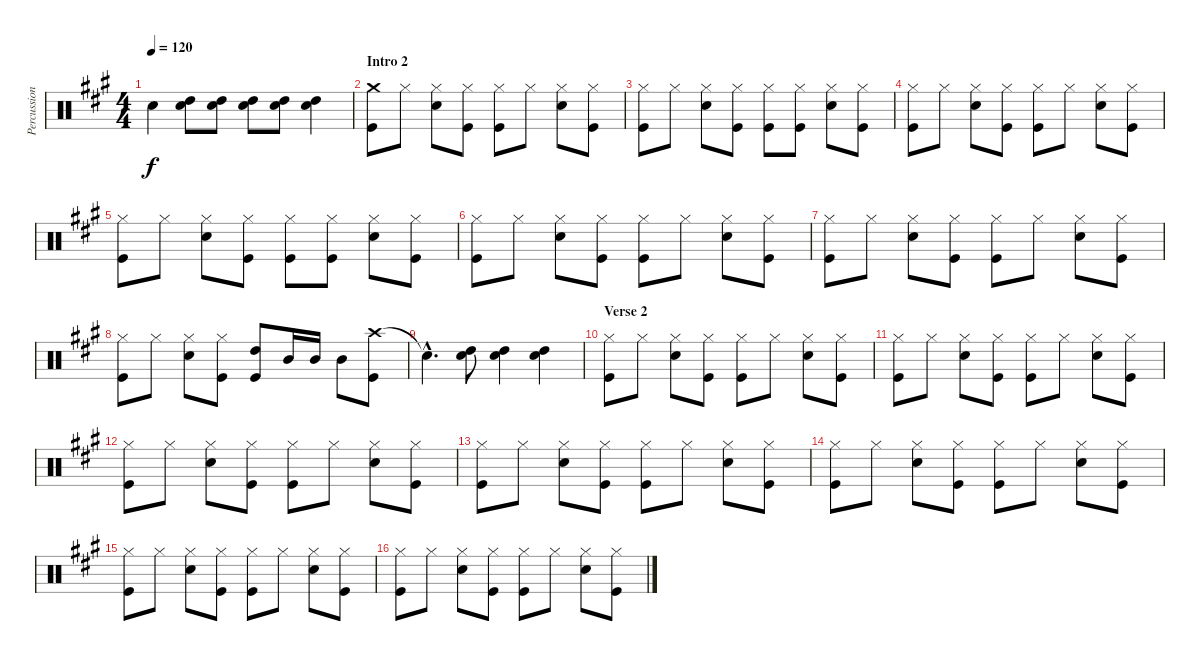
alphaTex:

\track ("Percussion" "Percussion") {instrument percussion}
\staff {score}
\articulation defaults
\ts (4 4)
\tempo 120
\clef neutral
\ks a "Snare (hit)"{t}.4{dy f}
("High Tom (hit)" "Snare (hit) 2").8 ("High Tom (hit)" "Snare (hit) 2").8 ("High Tom (hit)" "Snare (hit) 2").8 ("High Tom (hit)" "Snare (hit) 2").8 ("High Tom (hit)" "Snare (hit) 2").4 |
\section ("" "Intro 2")
("Crash medium (hit)" "Kick (hit)").8 "Hi-Hat (closed)".8 ("Hi-Hat (closed)" "Snare (hit) 2").8 ("Hi-Hat (closed)" "Kick (hit)").8 ("Hi-Hat (closed)" "Kick (hit)").8 "Hi-Hat (closed)".8 ("Hi-Hat (closed)" "Snare (hit) 2").8 ("Hi-Hat (closed)" "Kick (hit)").8 |
("Hi-Hat (closed)" "Kick (hit)").8 "Hi-Hat (closed)".8 ("Hi-Hat (closed)" "Snare (hit) 2").8 ("Hi-Hat (closed)" "Kick (hit)").8 ("Hi-Hat (closed)" "Kick (hit)").8 ("Hi-Hat (closed)" "Kick (hit)").8 ("Hi-Hat (closed)" "Snare (hit) 2").8 ("Hi-Hat (closed)" "Kick (hit)").8 |
("Hi-Hat (closed)" "Kick (hit)").8 "Hi-Hat (closed)".8 ("Hi-Hat (closed)" "Snare (hit) 2").8 ("Hi-Hat (closed)" "Kick (hit)").8 ("Hi-Hat (closed)" "Kick (hit)").8 "Hi-Hat (closed)".8 ("Hi-Hat (closed)" "Snare (hit) 2").8 ("Hi-Hat (closed)" "Kick (hit)").8 |
("Hi-Hat (closed)" "Kick (hit)").8 "Hi-Hat (closed)".8 ("Hi-Hat (closed)" "Snare (hit) 2").8 ("Hi-Hat (closed)" "Kick (hit)").8 ("Hi-Hat (closed)" "Kick (hit)").8 ("Hi-Hat (closed)" "Kick (hit)").8 ("Hi-Hat (closed)" "Snare (hit) 2").8 ("Hi-Hat (closed)" "Kick (hit)").8 |
("Hi-Hat (closed)" "Kick (hit)").8 "Hi-Hat (closed)".8 ("Hi-Hat (closed)" "Snare (hit) 2").8 ("Hi-Hat (closed)" "Kick (hit)").8 ("Hi-Hat (closed)" "Kick (hit)").8 "Hi-Hat (closed)".8 ("Hi-Hat (closed)" "Snare (hit) 2").8 ("Hi-Hat (closed)" "Kick (hit)").8 |
("Hi-Hat (closed)" "Kick (hit)").8 "Hi-Hat (closed)".8 ("Hi-Hat (closed)" "Snare (hit) 2").8 ("Hi-Hat (closed)" "Kick (hit)").8 ("Hi-Hat (closed)" "Kick (hit)").8 "Hi-Hat (closed)".8 ("Hi-Hat (closed)" "Snare (hit) 2").8 ("Hi-Hat (closed)" "Kick (hit)").8 |
("Hi-Hat (closed)" "Kick (hit)").8 "Hi-Hat (closed)".8 ("Hi-Hat (closed)" "Snare (hit) 2").8 ("Hi-Hat (closed)" "Kick (hit)").8 ("High Tom (hit)" "Kick (hit)").8 "Mid Tom (hit)".16 "Mid Tom (hit)".16 "Mid Tom (hit)".8 ("Crash high (hit)" "Kick (hit)").8 |
"Snare (hit)"{hac t}.4{d} ("High Tom (hit)" "Snare (hit) 2").8 ("High Tom (hit)" "Snare (hit) 2").4 ("High Tom (hit)" "Snare (hit) 2").4 |
\section ("" "Verse 2")
("Hi-Hat (closed)" "Kick (hit)").8 "Hi-Hat (closed)".8 ("Hi-Hat (closed)" "Snare (hit) 2").8 ("Hi-Hat (closed)" "Kick (hit)").8 ("Hi-Hat (closed)" "Kick (hit)").8 "Hi-Hat (closed)".8 ("Hi-Hat (closed)" "Snare (hit) 2").8 ("Hi-Hat (closed)" "Kick (hit)").8 |
("Hi-Hat (closed)" "Kick (hit)").8 "Hi-Hat (closed)".8 ("Hi-Hat (closed)" "Snare (hit) 2").8 ("Hi-Hat (closed)" "Kick (hit)").8 ("Hi-Hat (closed)" "Kick (hit)").8 "Hi-Hat (closed)".8 ("Hi-Hat (closed)" "Snare (hit) 2").8 ("Hi-Hat (closed)" "Kick (hit)").8 |
("Hi-Hat (closed)" "Kick (hit)").8 "Hi-Hat (closed)".8 ("Hi-Hat (closed)" "Snare (hit) 2").8 ("Hi-Hat (closed)" "Kick (hit)").8 ("Hi-Hat (closed)" "Kick (hit)").8 "Hi-Hat (closed)".8 ("Hi-Hat (closed)" "Snare (hit) 2").8 ("Hi-Hat (closed)" "Kick (hit)").8 |
("Hi-Hat (closed)" "Kick (hit)").8 "Hi-Hat (closed)".8 ("Hi-Hat (closed)" "Snare (hit) 2").8 ("Hi-Hat (closed)" "Kick (hit)").8 ("Hi-Hat (closed)" "Kick (hit)").8 "Hi-Hat (closed)".8 ("Hi-Hat (closed)" "Snare (hit) 2").8 ("Hi-Hat (closed)" "Kick (hit)").8 |
("Hi-Hat (closed)" "Kick (hit)").8 "Hi-Hat (closed)".8 ("Hi-Hat (closed)" "Snare (hit) 2").8 ("Hi-Hat (closed)" "Kick (hit)").8 ("Hi-Hat (closed)" "Kick (hit)").8 "Hi-Hat (closed)".8 ("Hi-Hat (closed)" "Snare (hit) 2").8 ("Hi-Hat (closed)" "Kick (hit)").8 |
("Hi-Hat (closed)" "Kick (hit)").8 "Hi-Hat (closed)".8 ("Hi-Hat (closed)" "Snare (hit) 2").8 ("Hi-Hat (closed)" "Kick (hit)").8 ("Hi-Hat (closed)" "Kick (hit)").8 "Hi-Hat (closed)".8 ("Hi-Hat (closed)" "Snare (hit) 2").8 ("Hi-Hat (closed)" "Kick (hit)").8 |
("Hi-Hat (closed)" "Kick (hit)").8 "Hi-Hat (closed)".8 ("Hi-Hat (closed)" "Snare (hit) 2").8 ("Hi-Hat (closed)" "Kick (hit)").8 ("Hi-Hat (closed)" "Kick (hit)").8 "Hi-Hat (closed)".8 ("Hi-Hat (closed)" "Snare (hit) 2").8 ("Hi-Hat (closed)" "Kick (hit)").8
